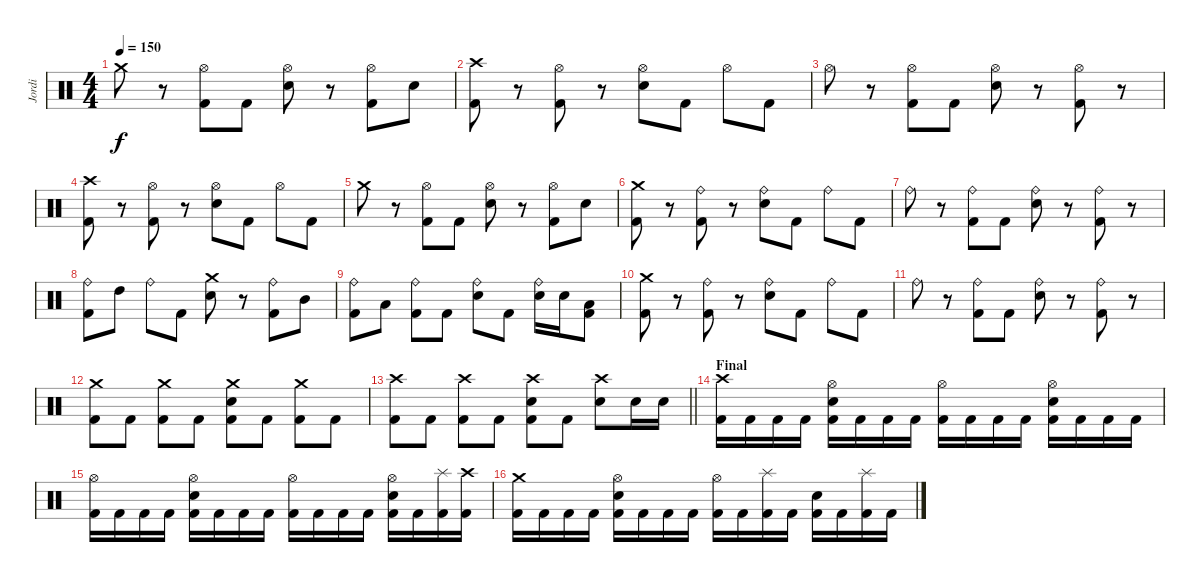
\track ("Jordi" "Jordi") {instrument percussion}
\staff {score}
\articulation defaults
\ts (4 4)
\tempo 150
\clef neutral
\ks c "Crash medium (hit)".8{dy f}
r.8 ("Hi-Hat (open)" "Kick (hit) 2").8 "Kick (hit) 2".8 ("Hi-Hat (open)" "Snare (hit) 2").8 r.8 ("Hi-Hat (open)" "Kick (hit) 2").8 "Snare (hit) 2".8 |
("Crash high (hit)" "Kick (hit) 2").8 r.8 ("Hi-Hat (open)" "Kick (hit) 2").8 r.8 ("Hi-Hat (open)" "Snare (hit) 2").8 "Kick (hit) 2".8 "Hi-Hat (open)".8 "Kick (hit) 2".8 |
"Hi-Hat (open)".8 r.8 ("Hi-Hat (open)" "Kick (hit) 2").8 "Kick (hit) 2".8 ("Hi-Hat (open)" "Snare (hit) 2").8 r.8 ("Hi-Hat (open)" "Kick (hit) 2").8 r.8 |
("Crash high (hit)" "Kick (hit) 2").8 r.8 ("Hi-Hat (open)" "Kick (hit) 2").8 r.8 ("Hi-Hat (open)" "Snare (hit) 2").8 "Kick (hit) 2".8 "Hi-Hat (open)".8 "Kick (hit) 2".8 |
"Crash medium (hit)".8 r.8 ("Hi-Hat (open)" "Kick (hit) 2").8 "Kick (hit) 2".8 ("Hi-Hat (open)" "Snare (hit) 2").8 r.8 ("Hi-Hat (open)" "Kick (hit) 2").8 "Snare (hit) 2".8 |
("Crash medium (hit)" "Kick (hit) 2").8 r.8 ("Ride (bell)" "Kick (hit) 2").8 r.8 ("Ride (bell)" "Snare (hit) 2").8 "Kick (hit) 2".8 "Ride (bell)".8 "Kick (hit) 2".8 |
"Ride (bell)".8 r.8 ("Ride (bell)" "Kick (hit) 2").8 "Kick (hit) 2".8 ("Ride (bell)" "Snare (hit) 2").8 r.8 ("Ride (bell)" "Kick (hit) 2").8 r.8 |
("Ride (bell)" "Kick (hit) 2").8 "High Tom (hit)".8 "Ride (bell)".8 "Kick (hit) 2".8 ("Crash medium (hit)" "Snare (hit) 2").8 r.8 ("Ride (bell)" "Kick (hit) 2").8 "Mid Tom (hit)".8 |
("Ride (bell)" "Kick (hit) 2").8 "Low Tom (hit)".8 ("Ride (bell)" "Kick (hit) 2").8 "Kick (hit) 2".8 ("Ride (bell)" "Snare (hit) 2").8 "Kick (hit) 2".8 ("Ride (bell)" "Snare (hit) 2").16 "Snare (hit) 2".16 ("Low Tom (hit)" "Kick (hit) 2").8 |
("Crash medium (hit)" "Kick (hit) 2").8 r.8 ("Ride (bell)" "Kick (hit) 2").8 r.8 ("Ride (bell)" "Snare (hit) 2").8 "Kick (hit) 2".8 "Ride (bell)".8 "Kick (hit) 2".8 |
"Ride (bell)".8 r.8 ("Ride (bell)" "Kick (hit) 2").8 "Kick (hit) 2".8 ("Ride (bell)" "Snare (hit) 2").8 r.8 ("Ride (bell)" "Kick (hit) 2").8 r.8 |
("Crash medium (hit)" "Kick (hit) 2").8 "Kick (hit) 2".8 ("Crash medium (hit)" "Kick (hit) 2").8 "Kick (hit) 2".8 ("Crash medium (hit)" "Snare (hit) 2" "Kick (hit) 2").8 "Kick (hit) 2".8 ("Crash medium (hit)" "Kick (hit) 2").8 "Kick (hit) 2".8 |
\barLineRight lightlight
("Crash high (hit)" "Kick (hit) 2").8 "Kick (hit) 2".8 ("Crash high (hit)" "Kick (hit) 2").8 "Kick (hit) 2".8 ("Crash high (hit)" "Snare (hit) 2" "Kick (hit) 2").8 "Kick (hit) 2".8 ("Crash high (hit)" "Snare (hit) 2").8 "Snare (hit) 2".16 "Snare (hit) 2".16 |
\section ("" "Final")
("Crash high (hit)" "Kick (hit) 2").16 "Kick (hit) 2".16 "Kick (hit) 2".16 "Kick (hit) 2".16 ("Hi-Hat (open)" "Snare (hit) 2" "Kick (hit) 2").16 "Kick (hit) 2".16 "Kick (hit) 2".16 "Kick (hit) 2".16 ("Hi-Hat (open)" "Kick (hit) 2").16 "Kick (hit) 2".16 "Kick (hit) 2".16 "Kick (hit) 2".16 ("Hi-Hat (open)" "Snare (hit) 2" "Kick (hit) 2").16 "Kick (hit) 2".16 "Kick (hit) 2".16 "Kick (hit) 2".16 |
("Hi-Hat (open)" "Kick (hit) 2").16 "Kick (hit) 2".16 "Kick (hit) 2".16 "Kick (hit) 2".16 ("Hi-Hat (open)" "Snare (hit) 2" "Kick (hit) 2").16 "Kick (hit) 2".16 "Kick (hit) 2".16 "Kick (hit) 2".16 ("Hi-Hat (open)" "Kick (hit) 2").16 "Kick (hit) 2".16 "Kick (hit) 2".16 "Kick (hit) 2".16 ("Hi-Hat (open)" "Snare (hit) 2" "Kick (hit) 2").16 "Kick (hit) 2".16 ("Splash (hit)" "Kick (hit) 2").16 ("Crash high (hit)" "Kick (hit) 2").16 |
("Crash medium (hit)" "Kick (hit) 2").16 "Kick (hit) 2".16 "Kick (hit) 2".16 "Kick (hit) 2".16 ("Hi-Hat (open)" "Snare (hit) 2" "Kick (hit) 2").16 "Kick (hit) 2".16 "Kick (hit) 2".16 "Kick (hit) 2".16 ("Hi-Hat (open)" "Kick (hit) 2").16 "Kick (hit) 2".16 ("Splash (hit)" "Kick (hit) 2").16 "Kick (hit) 2".16 ("Snare (hit) 2" "Kick (hit) 2").16 "Kick (hit) 2".16 ("Splash (hit)" "Kick (hit) 2").16 "Kick (hit) 2".16
